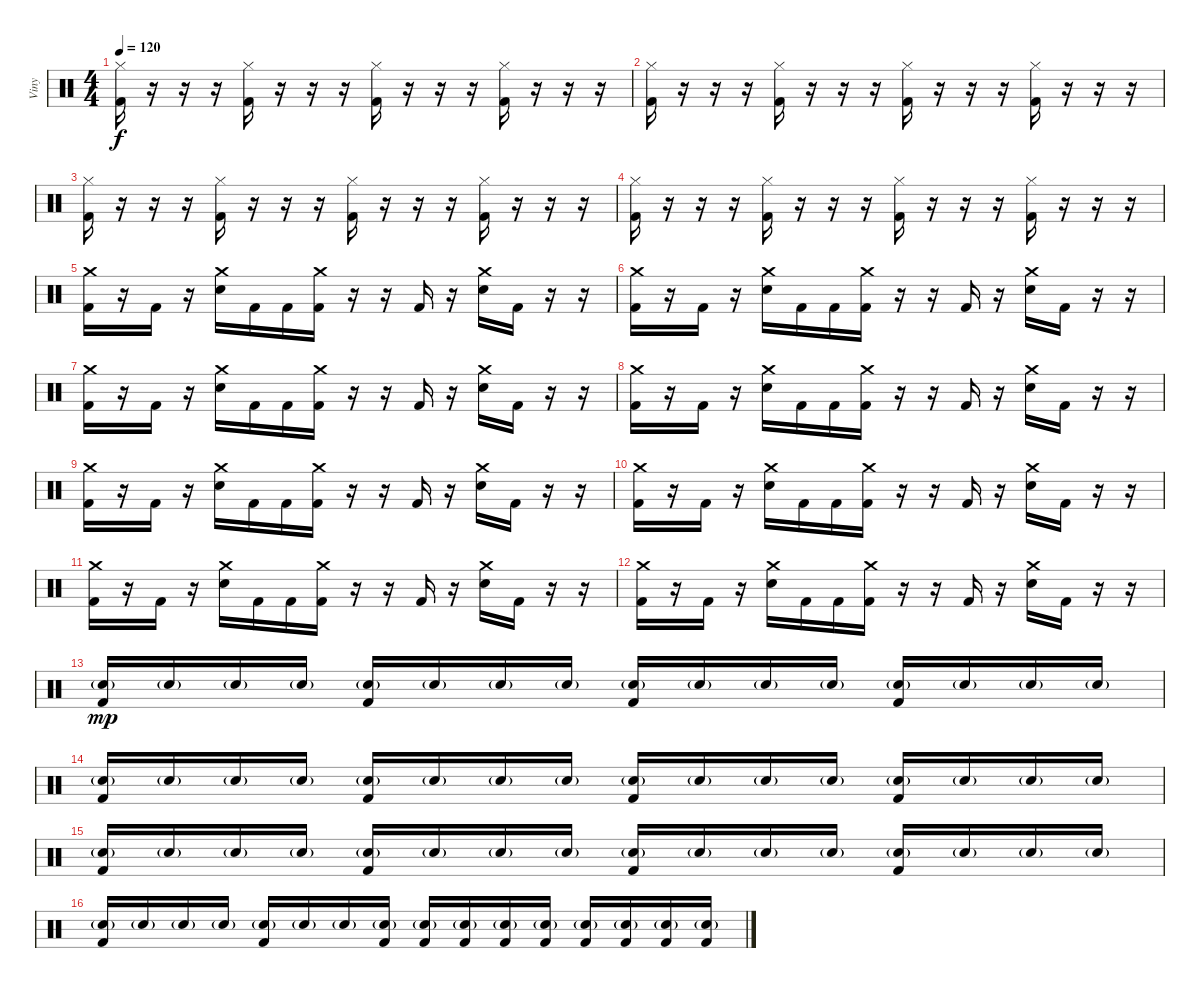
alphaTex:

\track ("Viny" "Viny") {instrument percussion}
\staff {score}
\articulation defaults
\ts (4 4)
\tempo 120
\clef neutral
\ks c
("Hi-Hat (closed)" "Kick (hit) 2").16{dy f} r.16 r.16 r.16 ("Hi-Hat (closed)" "Kick (hit) 2").16 r.16 r.16 r.16 ("Hi-Hat (closed)" "Kick (hit) 2").16 r.16 r.16 r.16 ("Hi-Hat (closed)" "Kick (hit) 2").16 r.16 r.16 r.16 |
("Hi-Hat (closed)" "Kick (hit) 2").16 r.16 r.16 r.16 ("Hi-Hat (closed)" "Kick (hit) 2").16 r.16 r.16 r.16 ("Hi-Hat (closed)" "Kick (hit) 2").16 r.16 r.16 r.16 ("Hi-Hat (closed)" "Kick (hit) 2").16 r.16 r.16 r.16 |
("Hi-Hat (closed)" "Kick (hit) 2").16 r.16 r.16 r.16 ("Hi-Hat (closed)" "Kick (hit) 2").16 r.16 r.16 r.16 ("Hi-Hat (closed)" "Kick (hit) 2").16 r.16 r.16 r.16 ("Hi-Hat (closed)" "Kick (hit) 2").16 r.16 r.16 r.16 |
("Hi-Hat (closed)" "Kick (hit) 2").16 r.16 r.16 r.16 ("Hi-Hat (closed)" "Kick (hit) 2").16 r.16 r.16 r.16 ("Hi-Hat (closed)" "Kick (hit) 2").16 r.16 r.16 r.16 ("Hi-Hat (closed)" "Kick (hit) 2").16 r.16 r.16 r.16 |
("Crash medium (hit)" "Kick (hit) 2").16 r.16 "Kick (hit) 2".16 r.16 ("Crash medium (hit)" "Electric Snare (hit)").16 "Kick (hit) 2".16 "Kick (hit) 2".16 ("Crash medium (hit)" "Kick (hit) 2").16 r.16 r.16 "Kick (hit) 2".16 r.16 ("Crash medium (hit)" "Electric Snare (hit)").16 "Kick (hit) 2".16 r.16 r.16 |
("Crash medium (hit)" "Kick (hit) 2").16 r.16 "Kick (hit) 2".16 r.16 ("Crash medium (hit)" "Electric Snare (hit)").16 "Kick (hit) 2".16 "Kick (hit) 2".16 ("Crash medium (hit)" "Kick (hit) 2").16 r.16 r.16 "Kick (hit) 2".16 r.16 ("Crash medium (hit)" "Electric Snare (hit)").16 "Kick (hit) 2".16 r.16 r.16 |
("Crash medium (hit)" "Kick (hit) 2").16 r.16 "Kick (hit) 2".16 r.16 ("Crash medium (hit)" "Electric Snare (hit)").16 "Kick (hit) 2".16 "Kick (hit) 2".16 ("Crash medium (hit)" "Kick (hit) 2").16 r.16 r.16 "Kick (hit) 2".16 r.16 ("Crash medium (hit)" "Electric Snare (hit)").16 "Kick (hit) 2".16 r.16 r.16 |
("Crash medium (hit)" "Kick (hit) 2").16 r.16 "Kick (hit) 2".16 r.16 ("Crash medium (hit)" "Electric Snare (hit)").16 "Kick (hit) 2".16 "Kick (hit) 2".16 ("Crash medium (hit)" "Kick (hit) 2").16 r.16 r.16 "Kick (hit) 2".16 r.16 ("Crash medium (hit)" "Electric Snare (hit)").16 "Kick (hit) 2".16 r.16 r.16 |
("Crash medium (hit)" "Kick (hit) 2").16 r.16 "Kick (hit) 2".16 r.16 ("Crash medium (hit)" "Electric Snare (hit)").16 "Kick (hit) 2".16 "Kick (hit) 2".16 ("Crash medium (hit)" "Kick (hit) 2").16 r.16 r.16 "Kick (hit) 2".16 r.16 ("Crash medium (hit)" "Electric Snare (hit)").16 "Kick (hit) 2".16 r.16 r.16 |
("Crash medium (hit)" "Kick (hit) 2").16 r.16 "Kick (hit) 2".16 r.16 ("Crash medium (hit)" "Electric Snare (hit)").16 "Kick (hit) 2".16 "Kick (hit) 2".16 ("Crash medium (hit)" "Kick (hit) 2").16 r.16 r.16 "Kick (hit) 2".16 r.16 ("Crash medium (hit)" "Electric Snare (hit)").16 "Kick (hit) 2".16 r.16 r.16 |
("Crash medium (hit)" "Kick (hit) 2").16 r.16 "Kick (hit) 2".16 r.16 ("Crash medium (hit)" "Electric Snare (hit)").16 "Kick (hit) 2".16 "Kick (hit) 2".16 ("Crash medium (hit)" "Kick (hit) 2").16 r.16 r.16 "Kick (hit) 2".16 r.16 ("Crash medium (hit)" "Electric Snare (hit)").16 "Kick (hit) 2".16 r.16 r.16 |
("Crash medium (hit)" "Kick (hit) 2").16 r.16 "Kick (hit) 2".16 r.16 ("Crash medium (hit)" "Electric Snare (hit)").16 "Kick (hit) 2".16 "Kick (hit) 2".16 ("Crash medium (hit)" "Kick (hit) 2").16 r.16 r.16 "Kick (hit) 2".16 r.16 ("Crash medium (hit)" "Electric Snare (hit)").16 "Kick (hit) 2".16 r.16 r.16 |
("Electric Snare (hit)"{g} "Kick (hit) 2").16{dy mp} "Electric Snare (hit)"{g}.16 "Electric Snare (hit)"{g}.16 "Electric Snare (hit)"{g}.16 ("Electric Snare (hit)"{g} "Kick (hit) 2").16 "Electric Snare (hit)"{g}.16 "Electric Snare (hit)"{g}.16 "Electric Snare (hit)"{g}.16 ("Electric Snare (hit)"{g} "Kick (hit) 2").16 "Electric Snare (hit)"{g}.16 "Electric Snare (hit)"{g}.16 "Electric Snare (hit)"{g}.16 ("Electric Snare (hit)"{g} "Kick (hit) 2").16 "Electric Snare (hit)"{g}.16 "Electric Snare (hit)"{g}.16 "Electric Snare (hit)"{g}.16 |
("Electric Snare (hit)"{g} "Kick (hit) 2").16 "Electric Snare (hit)"{g}.16 "Electric Snare (hit)"{g}.16 "Electric Snare (hit)"{g}.16 ("Electric Snare (hit)"{g} "Kick (hit) 2").16 "Electric Snare (hit)"{g}.16 "Electric Snare (hit)"{g}.16 "Electric Snare (hit)"{g}.16 ("Electric Snare (hit)"{g} "Kick (hit) 2").16 "Electric Snare (hit)"{g}.16 "Electric Snare (hit)"{g}.16 "Electric Snare (hit)"{g}.16 ("Electric Snare (hit)"{g} "Kick (hit) 2").16 "Electric Snare (hit)"{g}.16 "Electric Snare (hit)"{g}.16 "Electric Snare (hit)"{g}.16 |
("Electric Snare (hit)"{g} "Kick (hit) 2").16 "Electric Snare (hit)"{g}.16 "Electric Snare (hit)"{g}.16 "Electric Snare (hit)"{g}.16 ("Electric Snare (hit)"{g} "Kick (hit) 2").16 "Electric Snare (hit)"{g}.16 "Electric Snare (hit)"{g}.16 "Electric Snare (hit)"{g}.16 ("Electric Snare (hit)"{g} "Kick (hit) 2").16 "Electric Snare (hit)"{g}.16 "Electric Snare (hit)"{g}.16 "Electric Snare (hit)"{g}.16 ("Electric Snare (hit)"{g} "Kick (hit) 2").16 "Electric Snare (hit)"{g}.16 "Electric Snare (hit)"{g}.16 "Electric Snare (hit)"{g}.16 |
("Electric Snare (hit)"{g} "Kick (hit) 2").16 "Electric Snare (hit)"{g}.16 "Electric Snare (hit)"{g}.16 "Electric Snare (hit)"{g}.16 ("Electric Snare (hit)"{g} "Kick (hit) 2").16 "Electric Snare (hit)"{g}.16 "Electric Snare (hit)"{g}.16 ("Electric Snare (hit)"{g} "Kick (hit) 2").16 ("Electric Snare (hit)"{g} "Kick (hit) 2").16 ("Electric Snare (hit)"{g} "Kick (hit) 2").16 ("Electric Snare (hit)"{g} "Kick (hit) 2").16 ("Electric Snare (hit)"{g} "Kick (hit) 2").16 ("Electric Snare (hit)"{g} "Kick (hit) 2").16 ("Electric Snare (hit)"{g} "Kick (hit) 2").16 ("Electric Snare (hit)"{g} "Kick (hit) 2").16 ("Electric Snare (hit)"{g} "Kick (hit) 2").16
